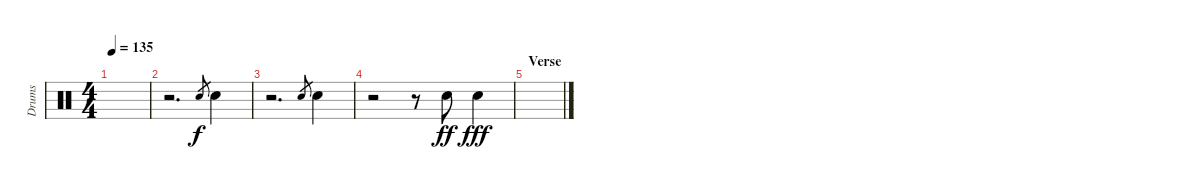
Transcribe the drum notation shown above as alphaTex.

\track ("Drums" "Drums") {instrument percussion}
\staff {score}
\articulation defaults
\ts (4 4)
\tempo 135
\clef neutral
\ks c
|
r.2{d} "Snare (hit) 2".8{gr} "Snare (hit) 2".4 |
r.2{d} "Snare (hit) 2".8{gr} "Snare (hit) 2".4 |
r.2 r.8 "Snare (hit) 2".8{dy ff} "Snare (hit) 2".4{dy fff} |
\section ("" "Verse")
